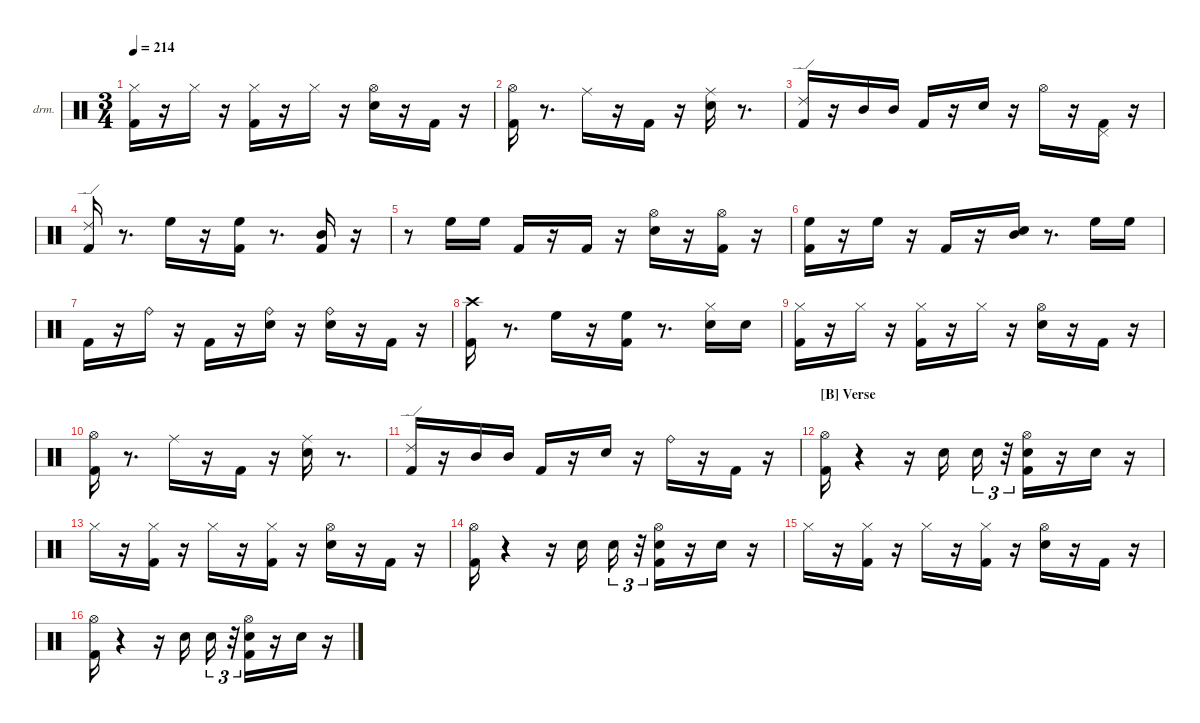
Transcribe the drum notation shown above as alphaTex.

\hideDynamics
\bracketExtendMode nobrackets
\firstSystemTrackNameOrientation horizontal
\otherSystemsTrackNameOrientation horizontal
\track ("EZdrummer 3" "drm.") {instrument percussion}
\staff {score}
\articulation defaults
\ts (3 4)
\tempo 214
\clef neutral
\ks aminor
("Kick (hit) 2" "Hi-Hat (closed)"{acc #}).16{dy ff} r.16 "Hi-Hat (closed)"{acc #}.16{dy p} r.16 ("Kick (hit) 2" "Hi-Hat (closed)"{acc #}).16{dy f} r.16 "Hi-Hat (closed)"{acc #}.16{dy p} r.16 ("Snare (hit) 2" "Hi-Hat (open)"{acc #}).16{dy ff} r.16 "Kick (hit) 2".16{dy mf} r.16 |
("Kick (hit) 2" "Hi-Hat (open)"{acc #}).16{dy fff} r.8{d} "Ride (middle)"{acc #}.16{dy ff} r.16 "Kick (hit) 2".16 r.16 ("Snare (hit) 2" "Ride (middle)"{acc #}).16 r.8{d} |
("Kick (hit) 2" "Ride (edge) 2").16 r.16 "Mid Tom (hit)".16{dy f} "Mid Tom (hit)".16{dy mp} "Kick (hit) 2".16{dy ff} r.16 "Snare (hit) 2".16 r.16 "Hi-Hat (open)"{acc #}.16{dy fff} r.16 ("Kick (hit) 2" "Pedal Hi-Hat (hit)"{acc #}).16{dy ff} r.16 |
("Kick (hit) 2" "Ride (edge) 2").16{dy fff} r.8{d} "High Floor Tom (hit)".16{dy mf} r.16 ("Kick (hit) 2" "High Floor Tom (hit)").16{dy fff} r.8{d} ("Kick (hit) 2" "Mid Tom (hit)").16{dy ff} r.16 |
r.8 "High Floor Tom (hit)".16{dy f} "High Floor Tom (hit)".16{dy mp} "Kick (hit) 2".16{dy mf} r.16 "Kick (hit) 2".16{dy fff} r.16 ("Snare (hit) 2" "Hi-Hat (open)"{acc #}).16{dy ff} r.16 ("Kick (hit) 2" "Hi-Hat (open)"{acc #}).16{dy mp} r.16 |
("Kick (hit) 2" "High Floor Tom (hit)").16{dy fff} r.16 "High Floor Tom (hit)".16{dy mf} r.16 "Kick (hit) 2".16{dy mp} r.16 ("Snare (hit) 2" "Mid Tom (hit)").16{dy fff} r.8{d} "High Floor Tom (hit)".16{dy ff} "High Floor Tom (hit)".16{dy mf} |
"Kick (hit) 2".16 r.16 "Ride (bell)".16{dy fff} r.16 "Kick (hit) 2".16{dy ff} r.16 ("Snare (hit) 2" "Ride (bell)").16{dy mf} r.16 ("Snare (hit) 2" "Ride (bell)").16{dy fff} r.16 "Kick (hit) 2".16{dy mf} r.16 |
("Kick (hit) 2" "Crash high (hit)"{acc #}).16{dy fff} r.8{d} "High Floor Tom (hit)".16 r.16 ("Kick (hit) 2" "High Floor Tom (hit)").16{dy f} r.8{d} ("Snare (hit) 2" "Hi-Hat (closed)"{acc #}).16{dy mf} "Snare (hit) 2".16{dy p} |
("Kick (hit) 2" "Hi-Hat (closed)"{acc #}).16{dy ff} r.16 "Hi-Hat (closed)"{acc #}.16{dy p} r.16 ("Kick (hit) 2" "Hi-Hat (closed)"{acc #}).16{dy f} r.16 "Hi-Hat (closed)"{acc #}.16{dy p} r.16 ("Snare (hit) 2" "Hi-Hat (open)"{acc #}).16{dy f} r.16 "Kick (hit) 2".16{dy mf} r.16 |
("Kick (hit) 2" "Hi-Hat (open)"{acc #}).16{dy fff} r.8{d} "Ride (middle)"{acc #}.16{dy ff} r.16 "Kick (hit) 2".16 r.16 ("Snare (hit) 2" "Ride (middle)"{acc #}).16 r.8{d} |
("Kick (hit) 2" "Ride (edge) 2").16 r.16 "Mid Tom (hit)".16{dy f} "Mid Tom (hit)".16{dy mp} "Kick (hit) 2".16{dy ff} r.16 "Snare (hit) 2".16 r.16 "Ride (bell)".16{dy fff} r.16 "Kick (hit) 2".16{dy mf} r.16 |
\section ("B" "Verse")
("Kick (hit) 2" "Hi-Hat (open)"{acc #}).16{dy ff} r.4 r.16 "Snare (hit) 2".16{dy f} "Snare (hit) 2".16{tu (3 2) dy p} r.32{tu (3 2)} ("Kick (hit) 2" "Snare (hit) 2" "Hi-Hat (open)"{acc #}).16{dy f} r.16 "Snare (hit) 2".16{dy fff} r.16 |
"Hi-Hat (closed)"{acc #}.16{dy f} r.16 ("Kick (hit) 2" "Hi-Hat (closed)"{acc #}).16{dy ff} r.16 "Hi-Hat (closed)"{acc #}.16{dy pp} r.16 ("Kick (hit) 2" "Hi-Hat (closed)"{acc #}).16{dy f} r.16 ("Snare (hit) 2" "Hi-Hat (open)"{acc #}).16{dy ff} r.16 "Kick (hit) 2".16{dy mf} r.16 |
("Kick (hit) 2" "Hi-Hat (open)"{acc #}).16{dy ff} r.4 r.16 "Snare (hit) 2".16{dy f} "Snare (hit) 2".16{tu (3 2) dy p} r.32{tu (3 2)} ("Kick (hit) 2" "Snare (hit) 2" "Hi-Hat (open)"{acc #}).16{dy f} r.16 "Snare (hit) 2".16{dy fff} r.16 |
"Hi-Hat (closed)"{acc #}.16{dy f} r.16 ("Kick (hit) 2" "Hi-Hat (closed)"{acc #}).16{dy ff} r.16 "Hi-Hat (closed)"{acc #}.16{dy pp} r.16 ("Kick (hit) 2" "Hi-Hat (closed)"{acc #}).16{dy f} r.16 ("Snare (hit) 2" "Hi-Hat (open)"{acc #}).16{dy ff} r.16 "Kick (hit) 2".16{dy mf} r.16 |
("Kick (hit) 2" "Hi-Hat (open)"{acc #}).16{dy ff} r.4 r.16 "Snare (hit) 2".16{dy f} "Snare (hit) 2".16{tu (3 2) dy p} r.32{tu (3 2)} ("Kick (hit) 2" "Snare (hit) 2" "Hi-Hat (open)"{acc #}).16{dy f} r.16 "Snare (hit) 2".16{dy fff} r.16
